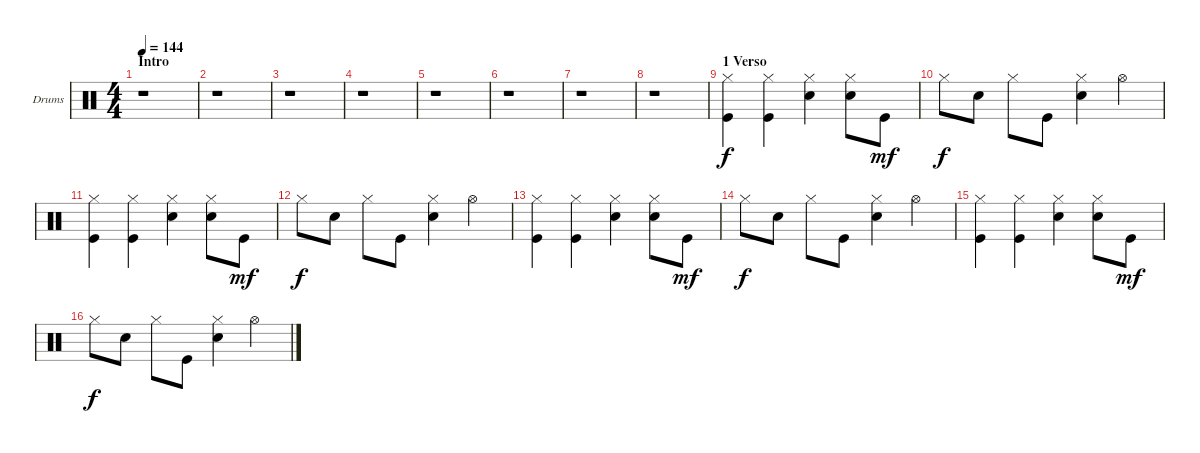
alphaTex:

\bracketExtendMode groupsimilarinstruments
\firstSystemTrackNameOrientation horizontal
\otherSystemsTrackNameOrientation horizontal
\track ("Drumkit" "Drums") {instrument percussion}
\staff {score}
\articulation defaults
\ts (4 4)
\section ("" "Intro")
\tempo 144
\clef neutral
\ks c
r.1{dy f} |
r.1 |
r.1 |
r.1 |
r.1 |
r.1 |
r.1 |
r.1 |
\section ("" "1 Verso")
("Hi-Hat (closed)" "Kick (hit)").4 ("Hi-Hat (closed)" "Kick (hit)").4 ("Hi-Hat (closed)" "Snare (hit) 2").4 ("Hi-Hat (closed)" "Snare (hit) 2").8 "Kick (hit)".8{dy mf} |
"Hi-Hat (closed)".8{dy f} "Snare (hit) 2".8 "Hi-Hat (closed)".8 "Kick (hit)".8 ("Hi-Hat (closed)" "Snare (hit) 2").4 "Hi-Hat (open)".4 |
("Hi-Hat (closed)" "Kick (hit)").4 ("Hi-Hat (closed)" "Kick (hit)").4 ("Hi-Hat (closed)" "Snare (hit) 2").4 ("Hi-Hat (closed)" "Snare (hit) 2").8 "Kick (hit)".8{dy mf} |
"Hi-Hat (closed)".8{dy f} "Snare (hit) 2".8 "Hi-Hat (closed)".8 "Kick (hit)".8 ("Hi-Hat (closed)" "Snare (hit) 2").4 "Hi-Hat (open)".4 |
("Hi-Hat (closed)" "Kick (hit)").4 ("Hi-Hat (closed)" "Kick (hit)").4 ("Hi-Hat (closed)" "Snare (hit) 2").4 ("Hi-Hat (closed)" "Snare (hit) 2").8 "Kick (hit)".8{dy mf} |
"Hi-Hat (closed)".8{dy f} "Snare (hit) 2".8 "Hi-Hat (closed)".8 "Kick (hit)".8 ("Hi-Hat (closed)" "Snare (hit) 2").4 "Hi-Hat (open)".4 |
("Hi-Hat (closed)" "Kick (hit)").4 ("Hi-Hat (closed)" "Kick (hit)").4 ("Hi-Hat (closed)" "Snare (hit) 2").4 ("Hi-Hat (closed)" "Snare (hit) 2").8 "Kick (hit)".8{dy mf} |
"Hi-Hat (closed)".8{dy f} "Snare (hit) 2".8 "Hi-Hat (closed)".8 "Kick (hit)".8 ("Hi-Hat (closed)" "Snare (hit) 2").4 "Hi-Hat (open)".4
